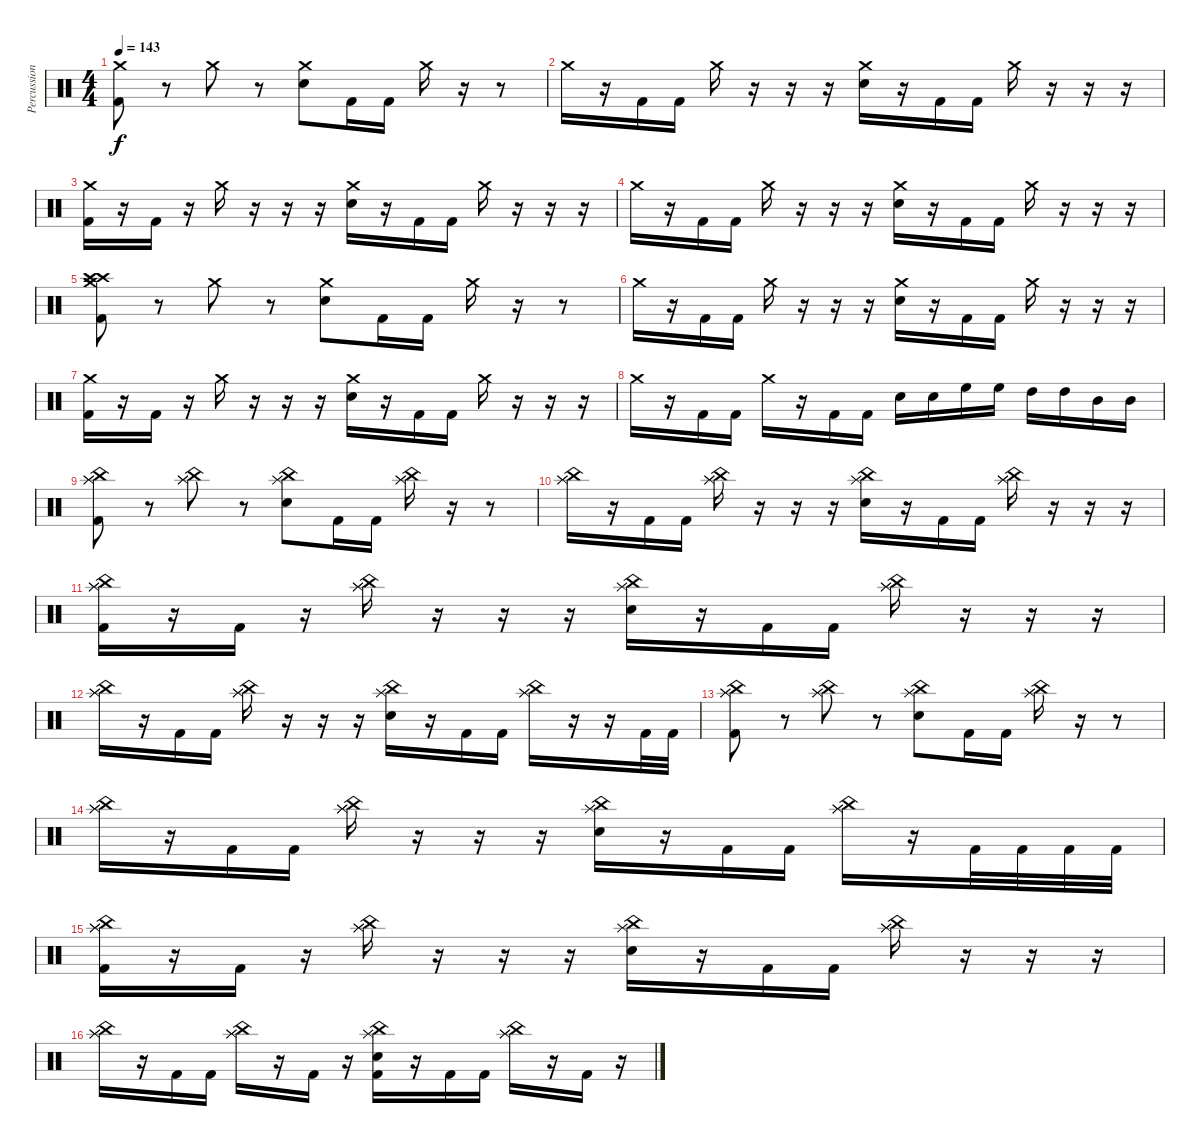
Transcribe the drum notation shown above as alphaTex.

\track ("Percussion" "Percussion") {instrument percussion}
\staff {score}
\articulation defaults
\ts (4 4)
\tempo 143
\clef neutral
\ks c
("Crash medium (hit)" "Kick (hit) 2").8{dy f} r.8 "Crash medium (hit)".8 r.8 ("Crash medium (hit)" "Electric Snare (hit)").8 "Kick (hit) 2".16 "Kick (hit) 2".16 "Crash medium (hit)".16 r.16 r.8 |
"Crash medium (hit)".16 r.16 "Kick (hit) 2".16 "Kick (hit) 2".16 "Crash medium (hit)".16 r.16 r.16 r.16 ("Crash medium (hit)" "Electric Snare (hit)").16 r.16 "Kick (hit) 2".16 "Kick (hit) 2".16 "Crash medium (hit)".16 r.16 r.16 r.16 |
("Crash medium (hit)" "Kick (hit) 2").16 r.16 "Kick (hit) 2".16 r.16 "Crash medium (hit)".16 r.16 r.16 r.16 ("Crash medium (hit)" "Electric Snare (hit)").16 r.16 "Kick (hit) 2".16 "Kick (hit) 2".16 "Crash medium (hit)".16 r.16 r.16 r.16 |
"Crash medium (hit)".16 r.16 "Kick (hit) 2".16 "Kick (hit) 2".16 "Crash medium (hit)".16 r.16 r.16 r.16 ("Crash medium (hit)" "Electric Snare (hit)").16 r.16 "Kick (hit) 2".16 "Kick (hit) 2".16 "Crash medium (hit)".16 r.16 r.16 r.16 |
("Crash high (hit)" "Crash medium (hit)" "Crash high (hit)" "Kick (hit) 2").8 r.8 "Crash medium (hit)".8 r.8 ("Crash medium (hit)" "Electric Snare (hit)").8 "Kick (hit) 2".16 "Kick (hit) 2".16 "Crash medium (hit)".16 r.16 r.8 |
"Crash medium (hit)".16 r.16 "Kick (hit) 2".16 "Kick (hit) 2".16 "Crash medium (hit)".16 r.16 r.16 r.16 ("Crash medium (hit)" "Electric Snare (hit)").16 r.16 "Kick (hit) 2".16 "Kick (hit) 2".16 "Crash medium (hit)".16 r.16 r.16 r.16 |
("Crash medium (hit)" "Kick (hit) 2").16 r.16 "Kick (hit) 2".16 r.16 "Crash medium (hit)".16 r.16 r.16 r.16 ("Crash medium (hit)" "Electric Snare (hit)").16 r.16 "Kick (hit) 2".16 "Kick (hit) 2".16 "Crash medium (hit)".16 r.16 r.16 r.16 |
"Crash medium (hit)".16 r.16 "Kick (hit) 2".16 "Kick (hit) 2".16 "Crash medium (hit)".16 r.16 "Kick (hit) 2".16 "Kick (hit) 2".16 "Electric Snare (hit)".16 "Electric Snare (hit)".16 "High Floor Tom (hit)".16 "High Floor Tom (hit)".16 "High Tom (hit)".16 "High Tom (hit)".16 "Mid Tom (hit)".16 "Mid Tom (hit)".16 |
("Splash (hit)" "Splash (hit)" "China (hit)" "Splash (hit)" "Kick (hit) 2").8 r.8 ("Splash (hit)" "China (hit)" "Splash (hit)" "Splash (hit)").8 r.8 ("Splash (hit)" "China (hit)" "Electric Snare (hit)" "Splash (hit)").8 "Kick (hit) 2".16 "Kick (hit) 2".16 ("Splash (hit)" "China (hit)" "Splash (hit)" "Splash (hit)").16 r.16 r.8 |
("Splash (hit)" "China (hit)" "Splash (hit)" "Splash (hit)").16 r.16 "Kick (hit) 2".16 "Kick (hit) 2".16 ("Splash (hit)" "China (hit)" "Splash (hit)" "Splash (hit)").16 r.16 r.16 r.16 ("Splash (hit)" "China (hit)" "Electric Snare (hit)" "Splash (hit)").16 r.16 "Kick (hit) 2".16 "Kick (hit) 2".16 ("Splash (hit)" "China (hit)" "Splash (hit)" "Splash (hit)").16 r.16 r.16 r.16 |
("Splash (hit)" "China (hit)" "Splash (hit)" "Splash (hit)" "Kick (hit) 2").16 r.16 "Kick (hit) 2".16 r.16 ("Splash (hit)" "China (hit)" "Splash (hit)" "Splash (hit)").16 r.16 r.16 r.16 ("Splash (hit)" "China (hit)" "Electric Snare (hit)" "Splash (hit)").16 r.16 "Kick (hit) 2".16 "Kick (hit) 2".16 ("Splash (hit)" "China (hit)" "Splash (hit)" "Splash (hit)").16 r.16 r.16 r.16 |
("Splash (hit)" "China (hit)" "Splash (hit)" "Splash (hit)").16 r.16 "Kick (hit) 2".16 "Kick (hit) 2".16 ("Splash (hit)" "China (hit)" "Splash (hit)" "Splash (hit)").16 r.16 r.16 r.16 ("Splash (hit)" "China (hit)" "Electric Snare (hit)" "Splash (hit)").16 r.16 "Kick (hit) 2".16 "Kick (hit) 2".16 ("Splash (hit)" "China (hit)" "Splash (hit)" "Splash (hit)").16 r.16 r.16 "Kick (hit) 2".32 "Kick (hit) 2".32 |
("Splash (hit)" "Splash (hit)" "China (hit)" "Splash (hit)" "Kick (hit) 2").8 r.8 ("Splash (hit)" "China (hit)" "Splash (hit)" "Splash (hit)").8 r.8 ("Splash (hit)" "China (hit)" "Electric Snare (hit)" "Splash (hit)").8 "Kick (hit) 2".16 "Kick (hit) 2".16 ("Splash (hit)" "China (hit)" "Splash (hit)" "Splash (hit)").16 r.16 r.8 |
("Splash (hit)" "China (hit)" "Splash (hit)" "Splash (hit)").16 r.16 "Kick (hit) 2".16 "Kick (hit) 2".16 ("Splash (hit)" "China (hit)" "Splash (hit)" "Splash (hit)").16 r.16 r.16 r.16 ("Splash (hit)" "China (hit)" "Electric Snare (hit)" "Splash (hit)").16 r.16 "Kick (hit) 2".16 "Kick (hit) 2".16 ("Splash (hit)" "China (hit)" "Splash (hit)" "Splash (hit)").16 r.16 "Kick (hit) 2".32 "Kick (hit) 2".32 "Kick (hit) 2".32 "Kick (hit) 2".32 |
("Splash (hit)" "China (hit)" "Splash (hit)" "Splash (hit)" "Kick (hit) 2").16 r.16 "Kick (hit) 2".16 r.16 ("Splash (hit)" "China (hit)" "Splash (hit)" "Splash (hit)").16 r.16 r.16 r.16 ("Splash (hit)" "China (hit)" "Electric Snare (hit)" "Splash (hit)").16 r.16 "Kick (hit) 2".16 "Kick (hit) 2".16 ("Splash (hit)" "China (hit)" "Splash (hit)" "Splash (hit)").16 r.16 r.16 r.16 |
("Splash (hit)" "China (hit)" "Splash (hit)" "Splash (hit)").16 r.16 "Kick (hit) 2".16 "Kick (hit) 2".16 ("Splash (hit)" "China (hit)" "Splash (hit)" "Splash (hit)").16 r.16 "Kick (hit) 2".16 r.16 ("Splash (hit)" "China (hit)" "Electric Snare (hit)" "Splash (hit)" "Kick (hit) 2").16 r.16 "Kick (hit) 2".16 "Kick (hit) 2".16 ("Splash (hit)" "China (hit)" "Splash (hit)" "Splash (hit)").16 r.16 "Kick (hit) 2".16 r.16
